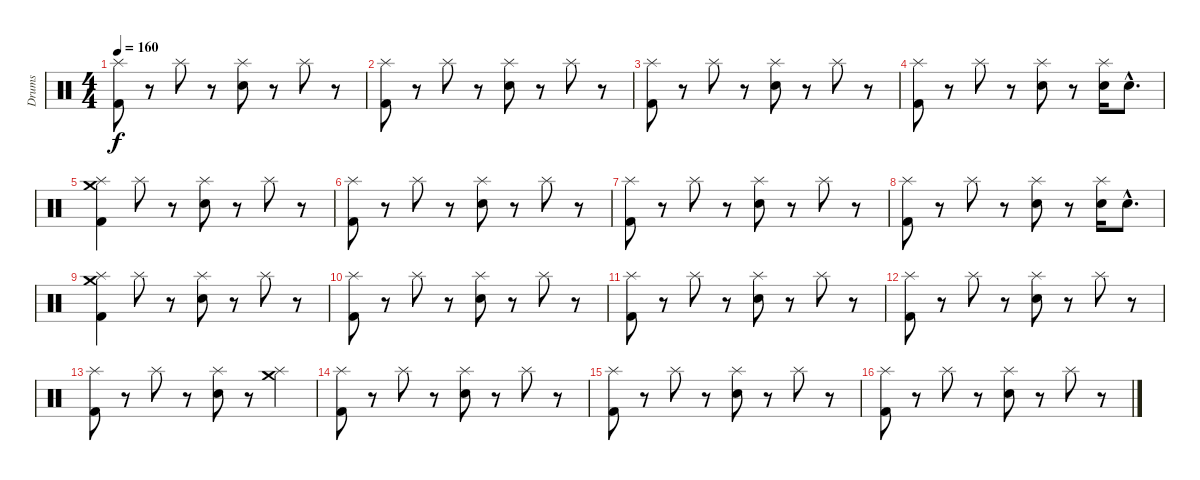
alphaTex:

\track ("Drums" "Drums") {instrument percussion}
\staff {score}
\articulation defaults
\ts (4 4)
\tempo 160
\clef neutral
\ks c
("Kick (hit) 2" "Splash (hit)").8{dy f} r.8 "Splash (hit)".8 r.8 ("Snare (hit) 2" "Splash (hit)").8 r.8 "Splash (hit)".8 r.8 |
("Kick (hit) 2" "Splash (hit)").8 r.8 "Splash (hit)".8 r.8 ("Snare (hit) 2" "Splash (hit)").8 r.8 "Splash (hit)".8 r.8 |
("Kick (hit) 2" "Splash (hit)").8 r.8 "Splash (hit)".8 r.8 ("Snare (hit) 2" "Splash (hit)").8 r.8 "Splash (hit)".8 r.8 |
("Kick (hit) 2" "Splash (hit)").8 r.8 "Splash (hit)".8 r.8 ("Snare (hit) 2" "Splash (hit)").8 r.8 ("Splash (hit)" "Snare (hit) 2").16 "Snare (hit) 2"{hac}.8{d} |
("Kick (hit) 2" "Splash (hit)" "Crash medium (hit)").4 "Splash (hit)".8 r.8 ("Snare (hit) 2" "Splash (hit)").8 r.8 "Splash (hit)".8 r.8 |
("Kick (hit) 2" "Splash (hit)").8 r.8 "Splash (hit)".8 r.8 ("Snare (hit) 2" "Splash (hit)").8 r.8 "Splash (hit)".8 r.8 |
("Kick (hit) 2" "Splash (hit)").8 r.8 "Splash (hit)".8 r.8 ("Snare (hit) 2" "Splash (hit)").8 r.8 "Splash (hit)".8 r.8 |
("Kick (hit) 2" "Splash (hit)").8 r.8 "Splash (hit)".8 r.8 ("Snare (hit) 2" "Splash (hit)").8 r.8 ("Splash (hit)" "Snare (hit) 2").16 "Snare (hit) 2"{hac}.8{d} |
("Kick (hit) 2" "Splash (hit)" "Crash medium (hit)").4 "Splash (hit)".8 r.8 ("Snare (hit) 2" "Splash (hit)").8 r.8 "Splash (hit)".8 r.8 |
("Kick (hit) 2" "Splash (hit)").8 r.8 "Splash (hit)".8 r.8 ("Snare (hit) 2" "Splash (hit)").8 r.8 "Splash (hit)".8 r.8 |
("Kick (hit) 2" "Splash (hit)").8 r.8 "Splash (hit)".8 r.8 ("Snare (hit) 2" "Splash (hit)").8 r.8 "Splash (hit)".8 r.8 |
("Kick (hit) 2" "Splash (hit)").8 r.8 "Splash (hit)".8 r.8 ("Snare (hit) 2" "Splash (hit)").8 r.8 "Splash (hit)".8 r.8 |
("Kick (hit) 2" "Splash (hit)").8 r.8 "Splash (hit)".8 r.8 ("Snare (hit) 2" "Splash (hit)").8 r.8 ("Splash (hit)" "Crash medium (hit)").4 |
("Kick (hit) 2" "Splash (hit)").8 r.8 "Splash (hit)".8 r.8 ("Snare (hit) 2" "Splash (hit)").8 r.8 "Splash (hit)".8 r.8 |
("Splash (hit)" "Kick (hit) 2").8 r.8 "Splash (hit)".8 r.8 ("Splash (hit)" "Snare (hit) 2").8 r.8 "Splash (hit)".8 r.8 |
("Splash (hit)" "Kick (hit) 2").8 r.8 "Splash (hit)".8 r.8 ("Splash (hit)" "Snare (hit) 2").8 r.8 "Splash (hit)".8 r.8
